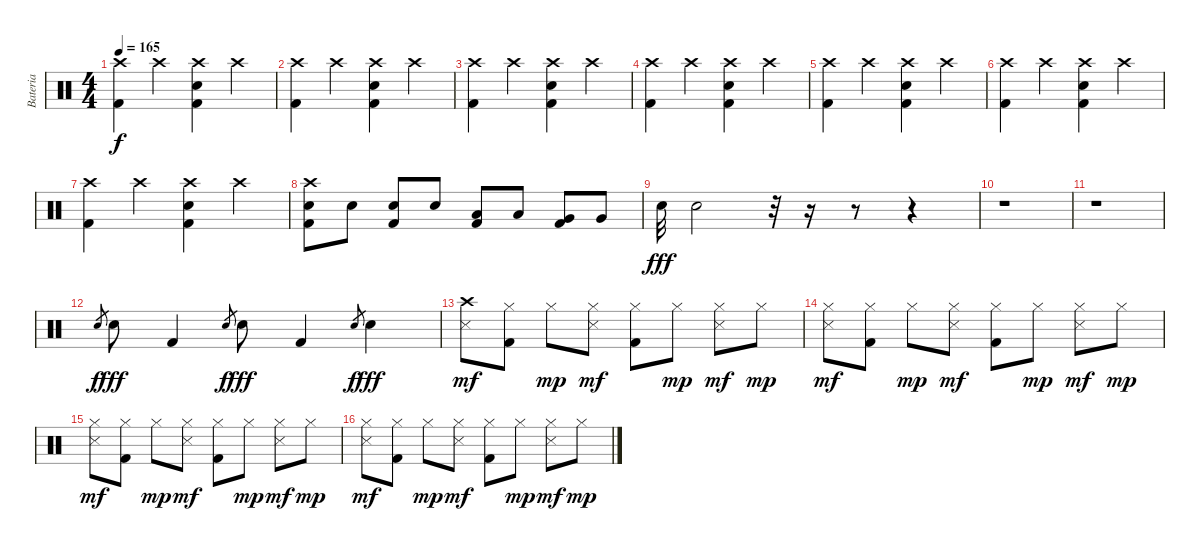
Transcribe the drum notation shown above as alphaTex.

\track ("Bateria" "Bateria") {instrument percussion}
\staff {score}
\articulation defaults
\ts (4 4)
\tempo 165
\clef neutral
\ks c
("Crash high (hit)" "Kick (hit) 2").4{dy f} "Crash high (hit)".4 ("Crash high (hit)" "Kick (hit) 2" "Snare (hit) 2").4 "Crash high (hit)".4 |
("Crash high (hit)" "Kick (hit) 2").4 "Crash high (hit)".4 ("Crash high (hit)" "Kick (hit) 2" "Snare (hit) 2").4 "Crash high (hit)".4 |
("Crash high (hit)" "Kick (hit) 2").4 "Crash high (hit)".4 ("Crash high (hit)" "Kick (hit) 2" "Snare (hit) 2").4 "Crash high (hit)".4 |
("Crash high (hit)" "Kick (hit) 2").4 "Crash high (hit)".4 ("Crash high (hit)" "Kick (hit) 2" "Snare (hit) 2").4 "Crash high (hit)".4 |
("Crash high (hit)" "Kick (hit) 2").4 "Crash high (hit)".4 ("Crash high (hit)" "Kick (hit) 2" "Snare (hit) 2").4 "Crash high (hit)".4 |
("Crash high (hit)" "Kick (hit) 2").4 "Crash high (hit)".4 ("Crash high (hit)" "Kick (hit) 2" "Snare (hit) 2").4 "Crash high (hit)".4 |
("Crash high (hit)" "Kick (hit) 2").4 "Crash high (hit)".4 ("Crash high (hit)" "Kick (hit) 2" "Snare (hit) 2").4 "Crash high (hit)".4 |
("Crash high (hit)" "Kick (hit) 2" "Snare (hit) 2").8 "Snare (hit) 2".8 ("Kick (hit) 2" "Snare (hit) 2").8 "Snare (hit) 2".8 ("Kick (hit) 2" "Low Tom (hit)").8 "Low Tom (hit)".8 ("Kick (hit) 2" "Very Low Tom (hit)").8 "Very Low Tom (hit)".8 |
"Snare (hit) 2".32{dy fff} "Snare (hit) 2".2 r.32 r.16 r.8 r.4 |
r.1 |
r.1 |
"Snare (hit) 2".8{gr dy f} "Snare (hit) 2".8{dy fff} "Kick (hit) 2".4 "Snare (hit) 2".8{gr dy f} "Snare (hit) 2".8{dy fff} "Kick (hit) 2".4 "Snare (hit) 2".8{gr dy f} "Snare (hit) 2".4{dy fff} |
("Crash high (hit)" "Snare (side stick) 3").8{dy mf} ("Hi-Hat (closed)" "Kick (hit) 2").8 "Hi-Hat (closed)".8{dy mp} ("Hi-Hat (closed)" "Snare (side stick) 3").8{dy mf} ("Hi-Hat (closed)" "Kick (hit) 2").8 "Hi-Hat (closed)".8{dy mp} ("Hi-Hat (closed)" "Snare (side stick) 3").8{dy mf} "Hi-Hat (closed)".8{dy mp} |
("Hi-Hat (closed)" "Snare (side stick) 3").8{dy mf} ("Hi-Hat (closed)" "Kick (hit) 2").8 "Hi-Hat (closed)".8{dy mp} ("Hi-Hat (closed)" "Snare (side stick) 3").8{dy mf} ("Hi-Hat (closed)" "Kick (hit) 2").8 "Hi-Hat (closed)".8{dy mp} ("Hi-Hat (closed)" "Snare (side stick) 3").8{dy mf} "Hi-Hat (closed)".8{dy mp} |
("Hi-Hat (closed)" "Snare (side stick) 3").8{dy mf} ("Hi-Hat (closed)" "Kick (hit) 2").8 "Hi-Hat (closed)".8{dy mp} ("Hi-Hat (closed)" "Snare (side stick) 3").8{dy mf} ("Hi-Hat (closed)" "Kick (hit) 2").8 "Hi-Hat (closed)".8{dy mp} ("Hi-Hat (closed)" "Snare (side stick) 3").8{dy mf} "Hi-Hat (closed)".8{dy mp} |
("Hi-Hat (closed)" "Snare (side stick) 3").8{dy mf} ("Hi-Hat (closed)" "Kick (hit) 2").8 "Hi-Hat (closed)".8{dy mp} ("Hi-Hat (closed)" "Snare (side stick) 3").8{dy mf} ("Hi-Hat (closed)" "Kick (hit) 2").8 "Hi-Hat (closed)".8{dy mp} ("Hi-Hat (closed)" "Snare (side stick) 3").8{dy mf} "Hi-Hat (closed)".8{dy mp}
